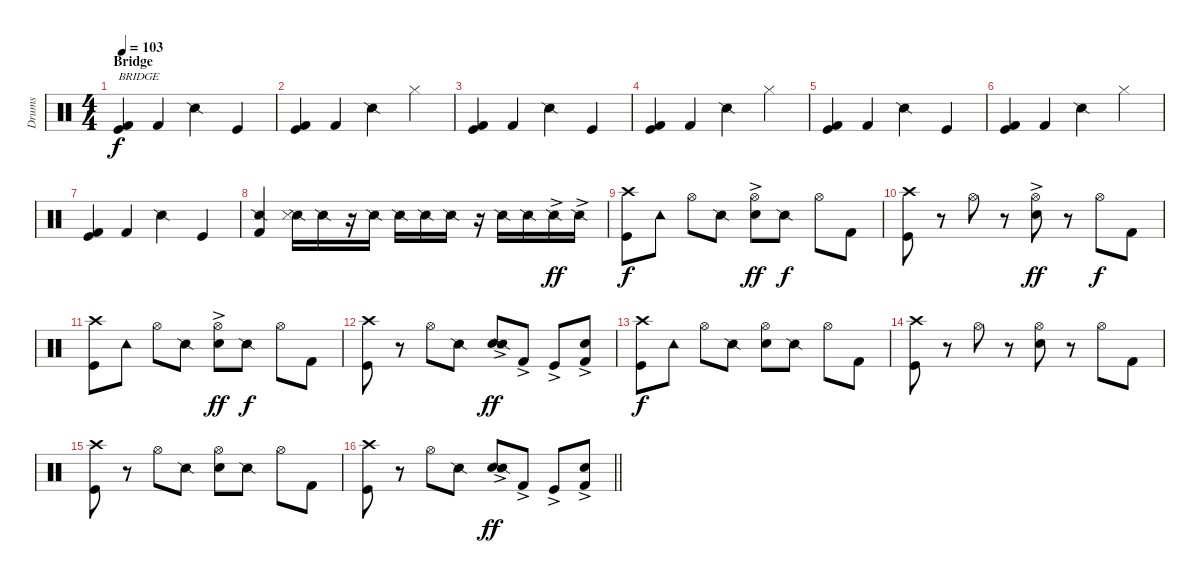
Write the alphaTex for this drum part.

\track ("Drums" "Drums") {instrument percussion}
\staff {score}
\articulation defaults
\ts (4 4)
\section ("" "Bridge")
\tempo 103
\clef neutral
\ks c
("Kick (hit)" "Kick (hit) 2").4{txt "BRIDGE" dy f} "Kick (hit) 2".4 "Snare (side stick) 2".4 "Kick (hit)".4 |
("Kick (hit)" "Kick (hit) 2").4 "Kick (hit) 2".4 "Snare (side stick) 2".4 "Hi-Hat (closed)".4 |
("Kick (hit)" "Kick (hit) 2").4 "Kick (hit) 2".4 "Snare (side stick) 2".4 "Kick (hit)".4 |
("Kick (hit)" "Kick (hit) 2").4 "Kick (hit) 2".4 "Snare (side stick) 2".4 "Hi-Hat (closed)".4 |
("Kick (hit)" "Kick (hit) 2").4 "Kick (hit) 2".4 "Snare (side stick) 2".4 "Kick (hit)".4 |
("Kick (hit)" "Kick (hit) 2").4 "Kick (hit) 2".4 "Snare (side stick) 2".4 "Hi-Hat (closed)".4 |
("Kick (hit)" "Kick (hit) 2").4 "Kick (hit) 2".4 "Snare (side stick) 2".4 "Kick (hit)".4 |
("Snare (side stick) 2" "Kick (hit) 2").4 ("Snare (side stick) 2" "Snare (side stick) 3").16 "Snare (side stick) 2".16 r.16 "Snare (side stick) 2".16 "Snare (side stick) 2".16 "Snare (side stick) 2".16 "Snare (side stick) 2".16 r.16 "Snare (side stick) 2".16 "Snare (side stick) 2".16 "Snare (side stick) 2"{ac}.16{dy ff} "Snare (side stick) 2"{ac}.16 |
("Crash high (hit)" "Kick (hit)").8{dy f} "Tambourine (hit)".8 "Hi-Hat (open)".8 "Snare (side stick) 2".8 ("Hi-Hat (open)" "Snare (hit) 2"{ac}).8{dy ff} "Snare (side stick) 2".8{dy f} "Hi-Hat (open)".8 "Kick (hit) 2".8 |
("Crash high (hit)" "Kick (hit)").8 r.8 "Hi-Hat (open)".8 r.8 ("Hi-Hat (open)" "Snare (hit) 2"{ac}).8{dy ff} r.8 "Hi-Hat (open)".8{dy f} "Kick (hit) 2".8 |
("Crash high (hit)" "Kick (hit)").8 "Tambourine (hit)".8 "Hi-Hat (open)".8 "Snare (side stick) 2".8 ("Hi-Hat (open)" "Snare (hit) 2"{ac}).8{dy ff} "Snare (side stick) 2".8{dy f} "Hi-Hat (open)".8 "Kick (hit) 2".8 |
("Crash high (hit)" "Kick (hit)").8 r.8 "Hi-Hat (open)".8 "Snare (side stick) 2".8 ("Snare (hit) 2"{ac} "Snare (side stick) 2").8{dy ff} "Kick (hit) 2"{ac}.8 "Kick (hit)"{ac}.8 ("Hand Clap (hit)"{ac} "Kick (hit) 2").8 |
("Crash high (hit)" "Kick (hit)").8{dy f} "Tambourine (hit)".8 "Hi-Hat (open)".8 "Snare (side stick) 2".8 ("Hi-Hat (open)" "Snare (hit) 2").8 "Snare (side stick) 2".8 "Hi-Hat (open)".8 "Kick (hit) 2".8 |
("Crash high (hit)" "Kick (hit)").8 r.8 "Hi-Hat (open)".8 r.8 ("Hi-Hat (open)" "Snare (hit) 2").8 r.8 "Hi-Hat (open)".8 "Kick (hit) 2".8 |
("Crash high (hit)" "Kick (hit)").8 r.8 "Hi-Hat (open)".8 "Snare (side stick) 2".8 ("Hi-Hat (open)" "Snare (hit) 2").8 "Snare (side stick) 2".8 "Hi-Hat (open)".8 "Kick (hit) 2".8 |
\barLineRight lightlight
("Crash high (hit)" "Kick (hit)").8 r.8 "Hi-Hat (open)".8 "Snare (side stick) 2".8 ("Snare (hit) 2"{ac} "Snare (side stick) 2").8{dy ff} "Kick (hit) 2"{ac}.8 "Kick (hit)"{ac}.8 ("Hand Clap (hit)"{ac} "Kick (hit) 2").8
